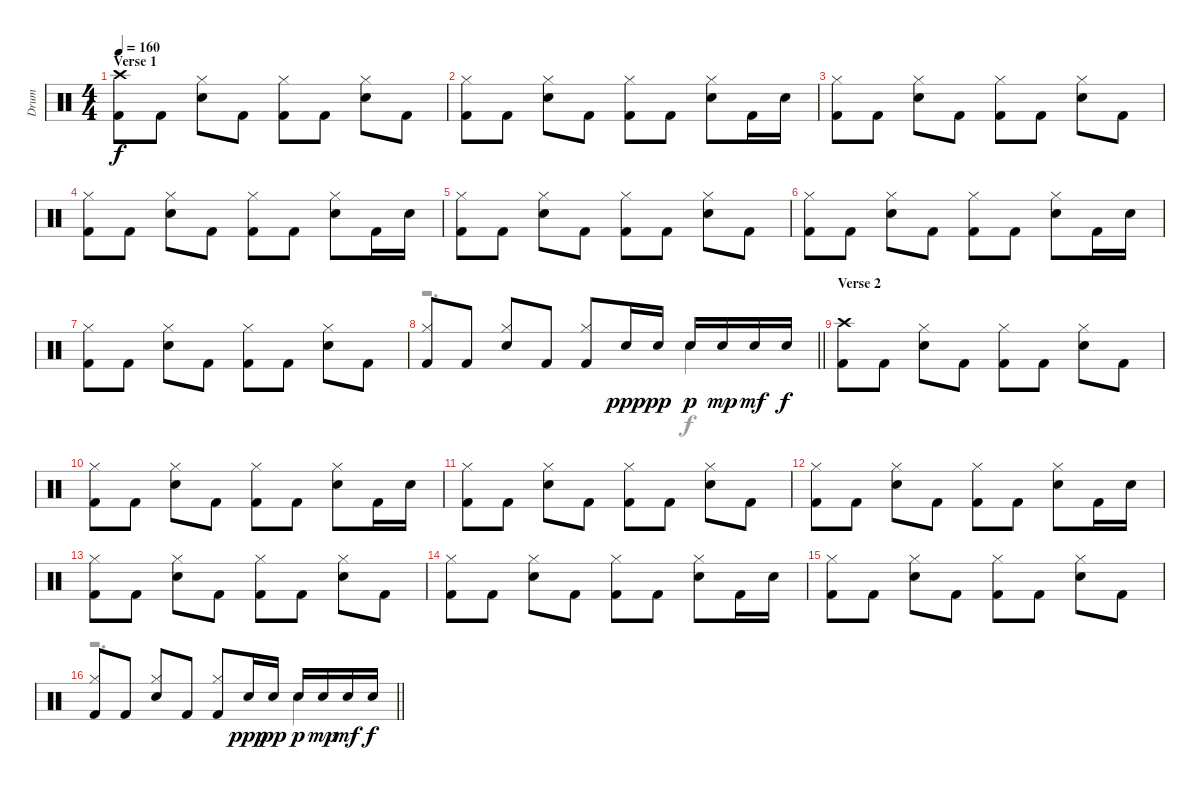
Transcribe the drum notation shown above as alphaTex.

\track ("Drum" "Drum") {instrument percussion}
\staff {score}
\articulation defaults
\voice
\ts (4 4)
\section ("" "Verse 1")
\tempo 160
\clef neutral
\ks c
("Crash high (hit)" "Kick (hit) 2").8{dy f} "Kick (hit) 2".8 ("Hi-Hat (closed)" "Electric Snare (hit)").8 "Kick (hit) 2".8 ("Hi-Hat (closed)" "Kick (hit) 2").8 "Kick (hit) 2".8 ("Hi-Hat (closed)" "Electric Snare (hit)").8 "Kick (hit) 2".8 |
("Hi-Hat (closed)" "Kick (hit) 2").8 "Kick (hit) 2".8 ("Hi-Hat (closed)" "Electric Snare (hit)").8 "Kick (hit) 2".8 ("Hi-Hat (closed)" "Kick (hit) 2").8 "Kick (hit) 2".8 ("Hi-Hat (closed)" "Electric Snare (hit)").8 "Kick (hit) 2".16 "Electric Snare (hit)".16 |
("Hi-Hat (closed)" "Kick (hit) 2").8 "Kick (hit) 2".8 ("Hi-Hat (closed)" "Electric Snare (hit)").8 "Kick (hit) 2".8 ("Hi-Hat (closed)" "Kick (hit) 2").8 "Kick (hit) 2".8 ("Hi-Hat (closed)" "Electric Snare (hit)").8 "Kick (hit) 2".8 |
("Hi-Hat (closed)" "Kick (hit) 2").8 "Kick (hit) 2".8 ("Hi-Hat (closed)" "Electric Snare (hit)").8 "Kick (hit) 2".8 ("Hi-Hat (closed)" "Kick (hit) 2").8 "Kick (hit) 2".8 ("Hi-Hat (closed)" "Electric Snare (hit)").8 "Kick (hit) 2".16 "Electric Snare (hit)".16 |
("Hi-Hat (closed)" "Kick (hit) 2").8 "Kick (hit) 2".8 ("Hi-Hat (closed)" "Electric Snare (hit)").8 "Kick (hit) 2".8 ("Hi-Hat (closed)" "Kick (hit) 2").8 "Kick (hit) 2".8 ("Hi-Hat (closed)" "Electric Snare (hit)").8 "Kick (hit) 2".8 |
("Hi-Hat (closed)" "Kick (hit) 2").8 "Kick (hit) 2".8 ("Hi-Hat (closed)" "Electric Snare (hit)").8 "Kick (hit) 2".8 ("Hi-Hat (closed)" "Kick (hit) 2").8 "Kick (hit) 2".8 ("Hi-Hat (closed)" "Electric Snare (hit)").8 "Kick (hit) 2".16 "Electric Snare (hit)".16 |
("Hi-Hat (closed)" "Kick (hit) 2").8 "Kick (hit) 2".8 ("Hi-Hat (closed)" "Electric Snare (hit)").8 "Kick (hit) 2".8 ("Hi-Hat (closed)" "Kick (hit) 2").8 "Kick (hit) 2".8 ("Hi-Hat (closed)" "Electric Snare (hit)").8 "Kick (hit) 2".8 |
\barLineRight lightlight
("Hi-Hat (closed)" "Kick (hit) 2").8 "Kick (hit) 2".8 ("Hi-Hat (closed)" "Electric Snare (hit)").8 "Kick (hit) 2".8 ("Hi-Hat (closed)" "Kick (hit) 2").8 "Electric Snare (hit)".16{dy ppp} "Electric Snare (hit)".16{dy pp} "Electric Snare (hit)".16{dy p} "Electric Snare (hit)".16{dy mp} "Electric Snare (hit)".16{dy mf} "Electric Snare (hit)".16{dy f} |
\section ("" "Verse 2")
("Crash high (hit)" "Kick (hit) 2").8 "Kick (hit) 2".8 ("Hi-Hat (closed)" "Electric Snare (hit)").8 "Kick (hit) 2".8 ("Hi-Hat (closed)" "Kick (hit) 2").8 "Kick (hit) 2".8 ("Hi-Hat (closed)" "Electric Snare (hit)").8 "Kick (hit) 2".8 |
("Hi-Hat (closed)" "Kick (hit) 2").8 "Kick (hit) 2".8 ("Hi-Hat (closed)" "Electric Snare (hit)").8 "Kick (hit) 2".8 ("Hi-Hat (closed)" "Kick (hit) 2").8 "Kick (hit) 2".8 ("Hi-Hat (closed)" "Electric Snare (hit)").8 "Kick (hit) 2".16 "Electric Snare (hit)".16 |
("Hi-Hat (closed)" "Kick (hit) 2").8 "Kick (hit) 2".8 ("Hi-Hat (closed)" "Electric Snare (hit)").8 "Kick (hit) 2".8 ("Hi-Hat (closed)" "Kick (hit) 2").8 "Kick (hit) 2".8 ("Hi-Hat (closed)" "Electric Snare (hit)").8 "Kick (hit) 2".8 |
("Hi-Hat (closed)" "Kick (hit) 2").8 "Kick (hit) 2".8 ("Hi-Hat (closed)" "Electric Snare (hit)").8 "Kick (hit) 2".8 ("Hi-Hat (closed)" "Kick (hit) 2").8 "Kick (hit) 2".8 ("Hi-Hat (closed)" "Electric Snare (hit)").8 "Kick (hit) 2".16 "Electric Snare (hit)".16 |
("Hi-Hat (closed)" "Kick (hit) 2").8 "Kick (hit) 2".8 ("Hi-Hat (closed)" "Electric Snare (hit)").8 "Kick (hit) 2".8 ("Hi-Hat (closed)" "Kick (hit) 2").8 "Kick (hit) 2".8 ("Hi-Hat (closed)" "Electric Snare (hit)").8 "Kick (hit) 2".8 |
("Hi-Hat (closed)" "Kick (hit) 2").8 "Kick (hit) 2".8 ("Hi-Hat (closed)" "Electric Snare (hit)").8 "Kick (hit) 2".8 ("Hi-Hat (closed)" "Kick (hit) 2").8 "Kick (hit) 2".8 ("Hi-Hat (closed)" "Electric Snare (hit)").8 "Kick (hit) 2".16 "Electric Snare (hit)".16 |
("Hi-Hat (closed)" "Kick (hit) 2").8 "Kick (hit) 2".8 ("Hi-Hat (closed)" "Electric Snare (hit)").8 "Kick (hit) 2".8 ("Hi-Hat (closed)" "Kick (hit) 2").8 "Kick (hit) 2".8 ("Hi-Hat (closed)" "Electric Snare (hit)").8 "Kick (hit) 2".8 |
\barLineRight lightlight
("Hi-Hat (closed)" "Kick (hit) 2").8 "Kick (hit) 2".8 ("Hi-Hat (closed)" "Electric Snare (hit)").8 "Kick (hit) 2".8 ("Hi-Hat (closed)" "Kick (hit) 2").8 "Electric Snare (hit)".16{dy ppp} "Electric Snare (hit)".16{dy pp} "Electric Snare (hit)".16{dy p} "Electric Snare (hit)".16{dy mp} "Electric Snare (hit)".16{dy mf} "Electric Snare (hit)".16{dy f}
\voice
\clef neutral
\ottava regular
\simile none
\ks c
|
|
|
|
|
|
|
\barLineRight lightlight
r.2{d} "Electric Snare (hit)".4 |
|
|
|
|
|
|
|
\barLineRight lightlight
r.2{d} "Electric Snare (hit)".4
